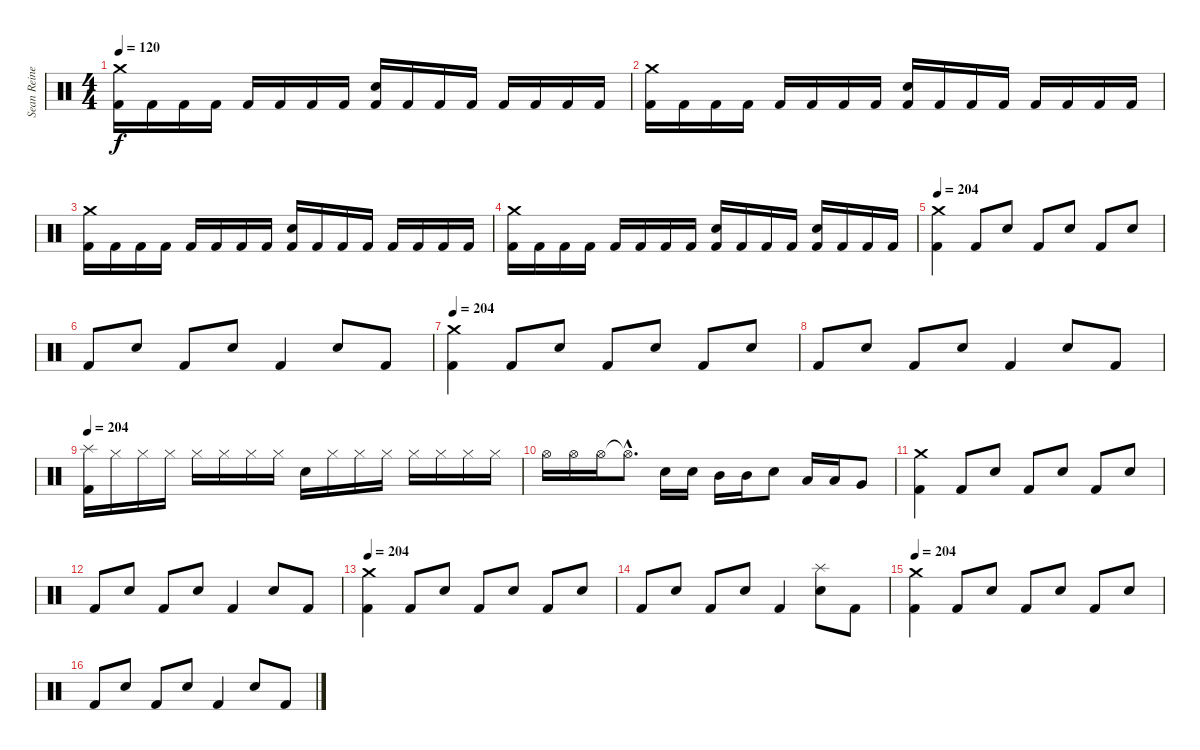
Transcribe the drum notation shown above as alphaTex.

\track ("Sean Reinert" "Sean Reine") {instrument percussion}
\staff {score}
\articulation defaults
\ts (4 4)
\tempo 120
\clef neutral
\ks c
("Crash medium (hit)" "Kick (hit) 2").16{dy f} "Kick (hit) 2".16 "Kick (hit) 2".16 "Kick (hit) 2".16 "Kick (hit) 2".16 "Kick (hit) 2".16 "Kick (hit) 2".16 "Kick (hit) 2".16 ("Snare (hit) 2" "Kick (hit) 2").16 "Kick (hit) 2".16 "Kick (hit) 2".16 "Kick (hit) 2".16 "Kick (hit) 2".16 "Kick (hit) 2".16 "Kick (hit) 2".16 "Kick (hit) 2".16 |
("Crash medium (hit)" "Kick (hit) 2").16 "Kick (hit) 2".16 "Kick (hit) 2".16 "Kick (hit) 2".16 "Kick (hit) 2".16 "Kick (hit) 2".16 "Kick (hit) 2".16 "Kick (hit) 2".16 ("Snare (hit) 2" "Kick (hit) 2").16 "Kick (hit) 2".16 "Kick (hit) 2".16 "Kick (hit) 2".16 "Kick (hit) 2".16 "Kick (hit) 2".16 "Kick (hit) 2".16 "Kick (hit) 2".16 |
("Crash medium (hit)" "Kick (hit) 2").16 "Kick (hit) 2".16 "Kick (hit) 2".16 "Kick (hit) 2".16 "Kick (hit) 2".16 "Kick (hit) 2".16 "Kick (hit) 2".16 "Kick (hit) 2".16 ("Snare (hit) 2" "Kick (hit) 2").16 "Kick (hit) 2".16 "Kick (hit) 2".16 "Kick (hit) 2".16 "Kick (hit) 2".16 "Kick (hit) 2".16 "Kick (hit) 2".16 "Kick (hit) 2".16 |
("Crash medium (hit)" "Kick (hit) 2").16 "Kick (hit) 2".16 "Kick (hit) 2".16 "Kick (hit) 2".16 "Kick (hit) 2".16 "Kick (hit) 2".16 "Kick (hit) 2".16 "Kick (hit) 2".16 ("Snare (hit) 2" "Kick (hit) 2").16 "Kick (hit) 2".16 "Kick (hit) 2".16 "Kick (hit) 2".16 ("Snare (hit) 2" "Kick (hit) 2").16 "Kick (hit) 2".16 "Kick (hit) 2".16 "Kick (hit) 2".16 |
\tempo 204
("Crash medium (hit)" "Kick (hit) 2").4 "Kick (hit) 2".8 "Snare (hit) 2".8 "Kick (hit) 2".8 "Snare (hit) 2".8 "Kick (hit) 2".8 "Snare (hit) 2".8 |
"Kick (hit) 2".8 "Snare (hit) 2".8 "Kick (hit) 2".8 "Snare (hit) 2".8 "Kick (hit) 2".4 "Snare (hit) 2".8 "Kick (hit) 2".8 |
\tempo 204
("Crash medium (hit)" "Kick (hit) 2").4 "Kick (hit) 2".8 "Snare (hit) 2".8 "Kick (hit) 2".8 "Snare (hit) 2".8 "Kick (hit) 2".8 "Snare (hit) 2".8 |
"Kick (hit) 2".8 "Snare (hit) 2".8 "Kick (hit) 2".8 "Snare (hit) 2".8 "Kick (hit) 2".4 "Snare (hit) 2".8 "Kick (hit) 2".8 |
\tempo 204
("Splash (hit)" "Kick (hit) 2").16 "Hi-Hat (closed)".16 "Hi-Hat (closed)".16 "Hi-Hat (closed)".16 "Hi-Hat (closed)".16 "Hi-Hat (closed)".16 "Hi-Hat (closed)".16 "Hi-Hat (closed)".16 "Snare (hit) 2".16 "Hi-Hat (closed)".16 "Hi-Hat (closed)".16 "Hi-Hat (closed)".16 "Hi-Hat (closed)".16 "Hi-Hat (closed)".16 "Hi-Hat (closed)".16 "Hi-Hat (closed)".16 |
"Hi-Hat (open)".16 "Hi-Hat (open)".16 "Hi-Hat (open)".16 "Hi-Hat (open)"{hac t}.8{d} "Snare (hit) 2".16 "Snare (hit) 2".16 "Mid Tom (hit)".16 "Mid Tom (hit)".16 "Snare (hit) 2".8 "Low Tom (hit)".16 "Low Tom (hit)".16 "Very Low Tom (hit)".8 |
("Crash medium (hit)" "Kick (hit) 2").4 "Kick (hit) 2".8 "Snare (hit) 2".8 "Kick (hit) 2".8 "Snare (hit) 2".8 "Kick (hit) 2".8 "Snare (hit) 2".8 |
"Kick (hit) 2".8 "Snare (hit) 2".8 "Kick (hit) 2".8 "Snare (hit) 2".8 "Kick (hit) 2".4 "Snare (hit) 2".8 "Kick (hit) 2".8 |
\tempo 204
("Crash medium (hit)" "Kick (hit) 2").4 "Kick (hit) 2".8 "Snare (hit) 2".8 "Kick (hit) 2".8 "Snare (hit) 2".8 "Kick (hit) 2".8 "Snare (hit) 2".8 |
"Kick (hit) 2".8 "Snare (hit) 2".8 "Kick (hit) 2".8 "Snare (hit) 2".8 "Kick (hit) 2".4 ("Splash (hit)" "Snare (hit) 2").8 "Kick (hit) 2".8 |
\tempo 204
("Crash medium (hit)" "Kick (hit) 2").4 "Kick (hit) 2".8 "Snare (hit) 2".8 "Kick (hit) 2".8 "Snare (hit) 2".8 "Kick (hit) 2".8 "Snare (hit) 2".8 |
"Kick (hit) 2".8 "Snare (hit) 2".8 "Kick (hit) 2".8 "Snare (hit) 2".8 "Kick (hit) 2".4 "Snare (hit) 2".8 "Kick (hit) 2".8
